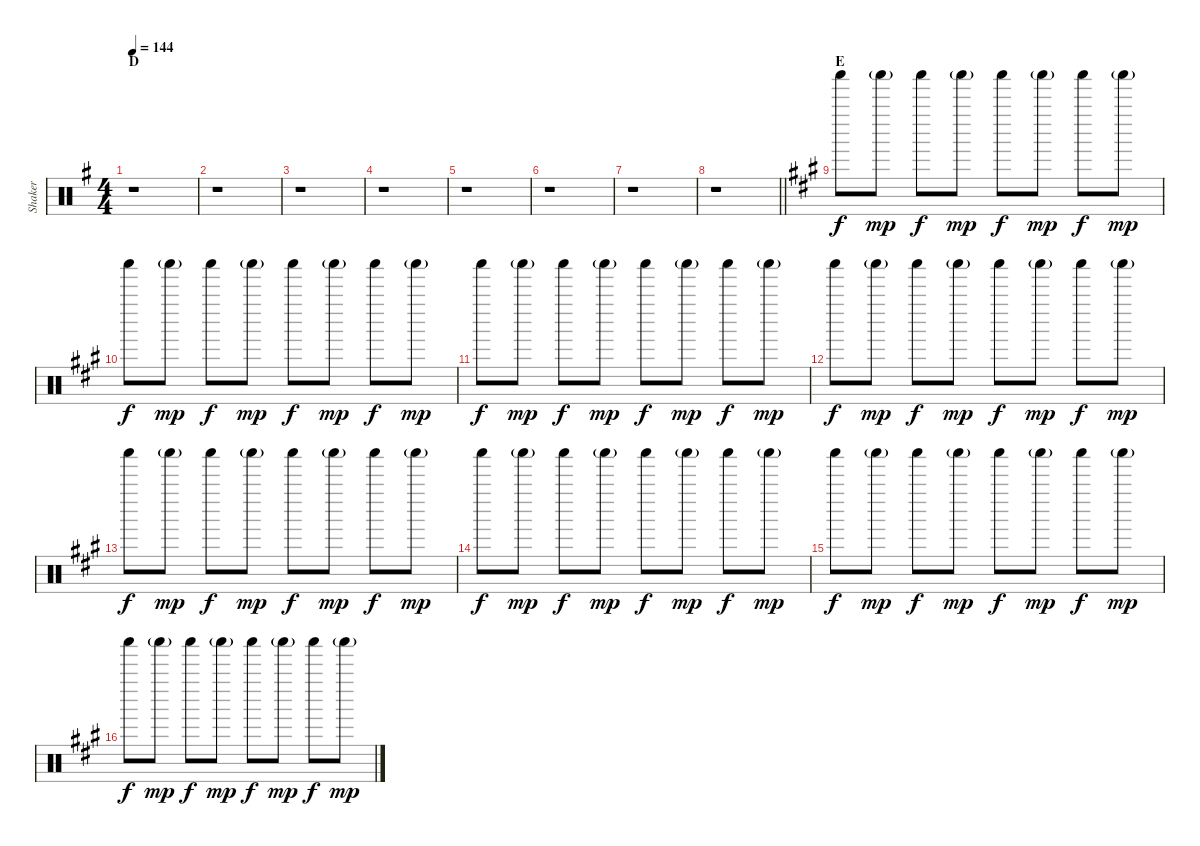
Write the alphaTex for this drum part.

\track ("Shaker" "Shaker") {instrument percussion}
\staff {score}
\articulation defaults
\ts (4 4)
\section ("" "D")
\tempo 144
\clef neutral
\ks g
r.1{dy mp} |
r.1 |
r.1 |
r.1 |
r.1 |
r.1 |
r.1 |
\barLineRight lightlight
r.1 |
\section ("" "E")
\ks a "Shaker (hit)".8{dy f} "Shaker (hit)"{g}.8{dy mp} "Shaker (hit)".8{dy f} "Shaker (hit)"{g}.8{dy mp} "Shaker (hit)".8{dy f} "Shaker (hit)"{g}.8{dy mp} "Shaker (hit)".8{dy f} "Shaker (hit)"{g}.8{dy mp}
|
"Shaker (hit)".8{dy f} "Shaker (hit)"{g}.8{dy mp} "Shaker (hit)".8{dy f} "Shaker (hit)"{g}.8{dy mp} "Shaker (hit)".8{dy f} "Shaker (hit)"{g}.8{dy mp} "Shaker (hit)".8{dy f} "Shaker (hit)"{g}.8{dy mp} |
"Shaker (hit)".8{dy f} "Shaker (hit)"{g}.8{dy mp} "Shaker (hit)".8{dy f} "Shaker (hit)"{g}.8{dy mp} "Shaker (hit)".8{dy f} "Shaker (hit)"{g}.8{dy mp} "Shaker (hit)".8{dy f} "Shaker (hit)"{g}.8{dy mp} |
"Shaker (hit)".8{dy f} "Shaker (hit)"{g}.8{dy mp} "Shaker (hit)".8{dy f} "Shaker (hit)"{g}.8{dy mp} "Shaker (hit)".8{dy f} "Shaker (hit)"{g}.8{dy mp} "Shaker (hit)".8{dy f} "Shaker (hit)"{g}.8{dy mp} |
"Shaker (hit)".8{dy f} "Shaker (hit)"{g}.8{dy mp} "Shaker (hit)".8{dy f} "Shaker (hit)"{g}.8{dy mp} "Shaker (hit)".8{dy f} "Shaker (hit)"{g}.8{dy mp} "Shaker (hit)".8{dy f} "Shaker (hit)"{g}.8{dy mp} |
"Shaker (hit)".8{dy f} "Shaker (hit)"{g}.8{dy mp} "Shaker (hit)".8{dy f} "Shaker (hit)"{g}.8{dy mp} "Shaker (hit)".8{dy f} "Shaker (hit)"{g}.8{dy mp} "Shaker (hit)".8{dy f} "Shaker (hit)"{g}.8{dy mp} |
"Shaker (hit)".8{dy f} "Shaker (hit)"{g}.8{dy mp} "Shaker (hit)".8{dy f} "Shaker (hit)"{g}.8{dy mp} "Shaker (hit)".8{dy f} "Shaker (hit)"{g}.8{dy mp} "Shaker (hit)".8{dy f} "Shaker (hit)"{g}.8{dy mp} |
"Shaker (hit)".8{dy f} "Shaker (hit)"{g}.8{dy mp} "Shaker (hit)".8{dy f} "Shaker (hit)"{g}.8{dy mp} "Shaker (hit)".8{dy f} "Shaker (hit)"{g}.8{dy mp} "Shaker (hit)".8{dy f} "Shaker (hit)"{g}.8{dy mp}
